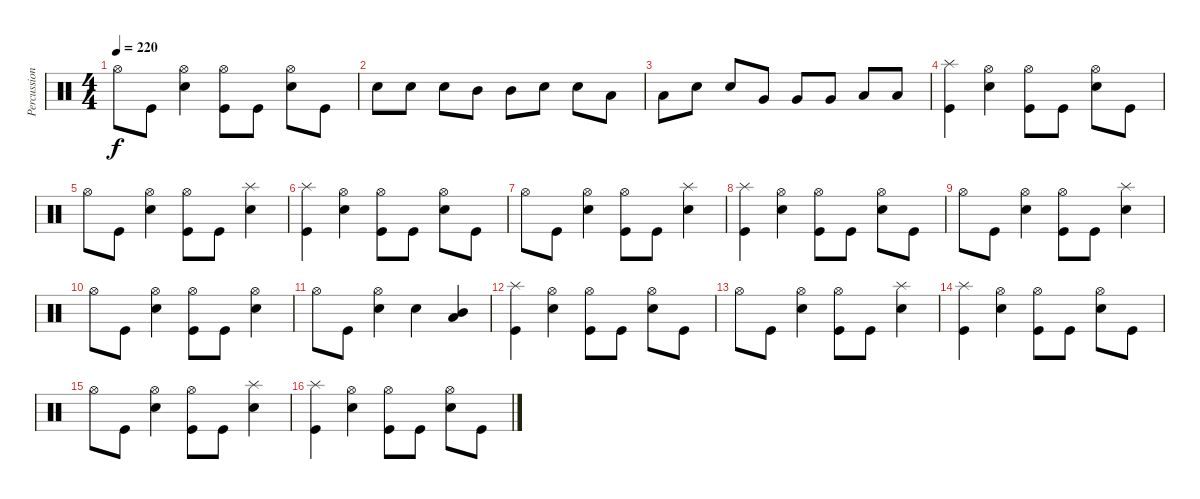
\track ("Percussions" "Percussion") {instrument percussion}
\staff {score}
\articulation defaults
\ts (4 4)
\tempo 220
\clef neutral
\ks c "Hi-Hat (open)".8{dy f} "Kick (hit)".8
("Electric Snare (hit)" "Hi-Hat (open)").4 ("Kick (hit)" "Hi-Hat (open)").8 "Kick (hit)".8 ("Electric Snare (hit)" "Hi-Hat (open)").8 "Kick (hit)".8 |
"Electric Snare (hit)".8 "Electric Snare (hit)".8 "Electric Snare (hit)".8 "Mid Tom (hit)".8 "Mid Tom (hit)".8 "Electric Snare (hit)".8 "Electric Snare (hit)".8 "Low Tom (hit)".8 |
"Low Tom (hit)".8 "Electric Snare (hit)".8 "Electric Snare (hit)".8 "Very Low Tom (hit)".8 "Very Low Tom (hit)".8 "Very Low Tom (hit)".8 "Low Floor Tom (hit)".8 "Low Floor Tom (hit)".8 |
("Kick (hit)" "Splash (hit)").4 ("Electric Snare (hit)" "Hi-Hat (open)").4 ("Kick (hit)" "Hi-Hat (open)").8 "Kick (hit)".8 ("Electric Snare (hit)" "Hi-Hat (open)").8 "Kick (hit)".8 |
"Hi-Hat (open)".8 "Kick (hit)".8 ("Electric Snare (hit)" "Hi-Hat (open)").4 ("Kick (hit)" "Hi-Hat (open)").8 "Kick (hit)".8 ("Electric Snare (hit)" "Splash (hit)").4 |
("Kick (hit)" "Splash (hit)").4 ("Electric Snare (hit)" "Hi-Hat (open)").4 ("Kick (hit)" "Hi-Hat (open)").8 "Kick (hit)".8 ("Electric Snare (hit)" "Hi-Hat (open)").8 "Kick (hit)".8 |
"Hi-Hat (open)".8 "Kick (hit)".8 ("Electric Snare (hit)" "Hi-Hat (open)").4 ("Kick (hit)" "Hi-Hat (open)").8 "Kick (hit)".8 ("Electric Snare (hit)" "Splash (hit)").4 |
("Kick (hit)" "Splash (hit)").4 ("Electric Snare (hit)" "Hi-Hat (open)").4 ("Kick (hit)" "Hi-Hat (open)").8 "Kick (hit)".8 ("Electric Snare (hit)" "Hi-Hat (open)").8 "Kick (hit)".8 |
"Hi-Hat (open)".8 "Kick (hit)".8 ("Electric Snare (hit)" "Hi-Hat (open)").4 ("Kick (hit)" "Hi-Hat (open)").8 "Kick (hit)".8 ("Electric Snare (hit)" "Splash (hit)").4 |
"Hi-Hat (open)".8 "Kick (hit)".8 ("Electric Snare (hit)" "Hi-Hat (open)").4 ("Kick (hit)" "Hi-Hat (open)").8 "Kick (hit)".8 ("Electric Snare (hit)" "Hi-Hat (open)").4 |
"Hi-Hat (open)".8 "Kick (hit)".8 ("Electric Snare (hit)" "Hi-Hat (open)").4 "Electric Snare (hit)".4 ("Low Tom (hit)" "Mid Tom (hit)").4 |
("Kick (hit)" "Splash (hit)").4 ("Electric Snare (hit)" "Hi-Hat (open)").4 ("Kick (hit)" "Hi-Hat (open)").8 "Kick (hit)".8 ("Electric Snare (hit)" "Hi-Hat (open)").8 "Kick (hit)".8 |
"Hi-Hat (open)".8 "Kick (hit)".8 ("Electric Snare (hit)" "Hi-Hat (open)").4 ("Kick (hit)" "Hi-Hat (open)").8 "Kick (hit)".8 ("Electric Snare (hit)" "Splash (hit)").4 |
("Kick (hit)" "Splash (hit)").4 ("Electric Snare (hit)" "Hi-Hat (open)").4 ("Kick (hit)" "Hi-Hat (open)").8 "Kick (hit)".8 ("Electric Snare (hit)" "Hi-Hat (open)").8 "Kick (hit)".8 |
"Hi-Hat (open)".8 "Kick (hit)".8 ("Electric Snare (hit)" "Hi-Hat (open)").4 ("Kick (hit)" "Hi-Hat (open)").8 "Kick (hit)".8 ("Electric Snare (hit)" "Splash (hit)").4 |
("Kick (hit)" "Splash (hit)").4 ("Electric Snare (hit)" "Hi-Hat (open)").4 ("Kick (hit)" "Hi-Hat (open)").8 "Kick (hit)".8 ("Electric Snare (hit)" "Hi-Hat (open)").8 "Kick (hit)".8
